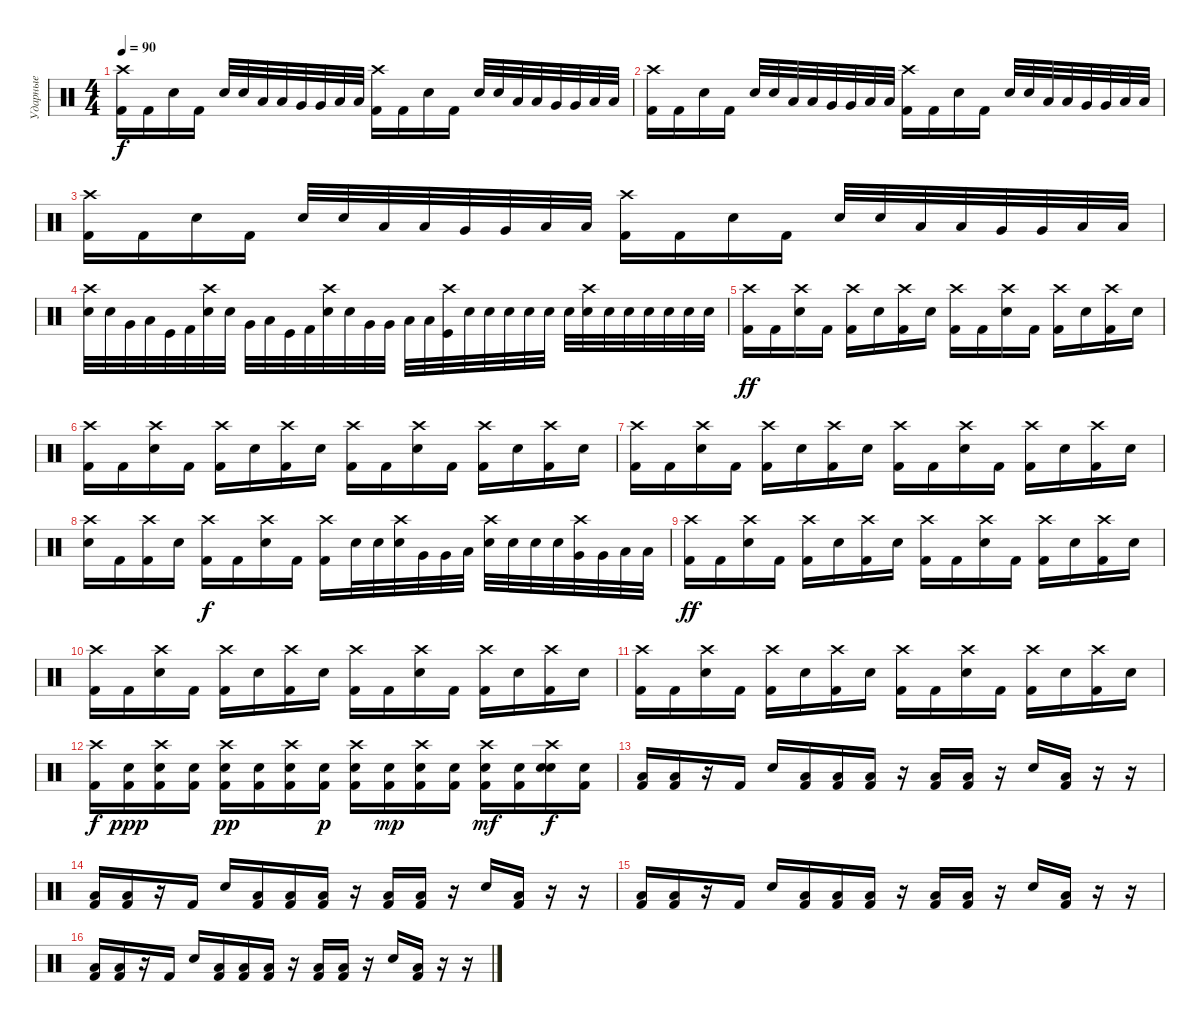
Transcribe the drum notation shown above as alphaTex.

\track ("Ударные" "Ударные") {instrument percussion}
\staff {score}
\articulation defaults
\ts (4 4)
\tempo 90
\clef neutral
\ks c
("Crash high (hit)" "Kick (hit) 2").16{dy f} "Kick (hit) 2".16 "Snare (hit) 2".16 "Kick (hit) 2".16 "Snare (hit) 2".32 "Snare (hit) 2".32 "Low Tom (hit)".32 "Low Tom (hit)".32 "Very Low Tom (hit)".32 "Very Low Tom (hit)".32 "Low Floor Tom (hit)".32 "Low Floor Tom (hit)".32 ("Crash high (hit)" "Kick (hit) 2").16 "Kick (hit) 2".16 "Snare (hit) 2".16 "Kick (hit) 2".16 "Snare (hit) 2".32 "Snare (hit) 2".32 "Low Tom (hit)".32 "Low Tom (hit)".32 "Very Low Tom (hit)".32 "Very Low Tom (hit)".32 "Low Floor Tom (hit)".32 "Low Floor Tom (hit)".32 |
("Crash high (hit)" "Kick (hit) 2").16 "Kick (hit) 2".16 "Snare (hit) 2".16 "Kick (hit) 2".16 "Snare (hit) 2".32 "Snare (hit) 2".32 "Low Tom (hit)".32 "Low Tom (hit)".32 "Very Low Tom (hit)".32 "Very Low Tom (hit)".32 "Low Floor Tom (hit)".32 "Low Floor Tom (hit)".32 ("Crash high (hit)" "Kick (hit) 2").16 "Kick (hit) 2".16 "Snare (hit) 2".16 "Kick (hit) 2".16 "Snare (hit) 2".32 "Snare (hit) 2".32 "Low Tom (hit)".32 "Low Tom (hit)".32 "Very Low Tom (hit)".32 "Very Low Tom (hit)".32 "Low Floor Tom (hit)".32 "Low Floor Tom (hit)".32 |
("Crash high (hit)" "Kick (hit) 2").16 "Kick (hit) 2".16 "Snare (hit) 2".16 "Kick (hit) 2".16 "Snare (hit) 2".32 "Snare (hit) 2".32 "Low Tom (hit)".32 "Low Tom (hit)".32 "Very Low Tom (hit)".32 "Very Low Tom (hit)".32 "Low Floor Tom (hit)".32 "Low Floor Tom (hit)".32 ("Crash high (hit)" "Kick (hit) 2").16 "Kick (hit) 2".16 "Snare (hit) 2".16 "Kick (hit) 2".16 "Snare (hit) 2".32 "Snare (hit) 2".32 "Low Tom (hit)".32 "Low Tom (hit)".32 "Very Low Tom (hit)".32 "Very Low Tom (hit)".32 "Low Floor Tom (hit)".32 "Low Floor Tom (hit)".32 |
("Crash high (hit)" "Snare (hit) 2").32 "Snare (hit) 2".32 "Very Low Tom (hit)".32 "Low Floor Tom (hit)".32 "Kick (hit)".32 "Kick (hit) 2".32 ("Crash high (hit)" "Snare (hit) 2").32 "Snare (hit) 2".32 "Very Low Tom (hit)".32 "Low Floor Tom (hit)".32 "Kick (hit)".32 "Kick (hit) 2".32 ("Crash high (hit)" "Snare (hit) 2").32 "Snare (hit) 2".32 "Very Low Tom (hit)".32 "Very Low Tom (hit)".32 "Low Floor Tom (hit)".32 "Low Floor Tom (hit)".32 ("Crash high (hit)" "Kick (hit)").32 "Snare (hit) 2".32 "Snare (hit) 2".32 "Snare (hit) 2".32 "Snare (hit) 2".32 "Snare (hit) 2".32 "Snare (hit) 2".32 ("Crash high (hit)" "Snare (hit) 2").32 "Snare (hit) 2".32 "Snare (hit) 2".32 "Snare (hit) 2".32 "Snare (hit) 2".32 "Snare (hit) 2".32 "Snare (hit) 2".32 |
("Crash high (hit)" "Kick (hit) 2").16{dy ff} "Kick (hit) 2".16 ("Crash high (hit)" "Snare (hit) 2").16 "Kick (hit) 2".16 ("Crash high (hit)" "Kick (hit) 2").16 "Snare (hit) 2".16 ("Crash high (hit)" "Kick (hit) 2").16 "Snare (hit) 2".16 ("Crash high (hit)" "Kick (hit) 2").16 "Kick (hit) 2".16 ("Crash high (hit)" "Snare (hit) 2").16 "Kick (hit) 2".16 ("Crash high (hit)" "Kick (hit) 2").16 "Snare (hit) 2".16 ("Crash high (hit)" "Kick (hit) 2").16 "Snare (hit) 2".16 |
("Crash high (hit)" "Kick (hit) 2").16 "Kick (hit) 2".16 ("Crash high (hit)" "Snare (hit) 2").16 "Kick (hit) 2".16 ("Crash high (hit)" "Kick (hit) 2").16 "Snare (hit) 2".16 ("Crash high (hit)" "Kick (hit) 2").16 "Snare (hit) 2".16 ("Crash high (hit)" "Kick (hit) 2").16 "Kick (hit) 2".16 ("Crash high (hit)" "Snare (hit) 2").16 "Kick (hit) 2".16 ("Crash high (hit)" "Kick (hit) 2").16 "Snare (hit) 2".16 ("Crash high (hit)" "Kick (hit) 2").16 "Snare (hit) 2".16 |
("Crash high (hit)" "Kick (hit) 2").16 "Kick (hit) 2".16 ("Crash high (hit)" "Snare (hit) 2").16 "Kick (hit) 2".16 ("Crash high (hit)" "Kick (hit) 2").16 "Snare (hit) 2".16 ("Crash high (hit)" "Kick (hit) 2").16 "Snare (hit) 2".16 ("Crash high (hit)" "Kick (hit) 2").16 "Kick (hit) 2".16 ("Crash high (hit)" "Snare (hit) 2").16 "Kick (hit) 2".16 ("Crash high (hit)" "Kick (hit) 2").16 "Snare (hit) 2".16 ("Crash high (hit)" "Kick (hit) 2").16 "Snare (hit) 2".16 |
("Crash high (hit)" "Snare (hit) 2").16 "Kick (hit) 2".16 ("Crash high (hit)" "Kick (hit) 2").16 "Snare (hit) 2".16 ("Crash high (hit)" "Kick (hit) 2").16{dy f} "Kick (hit) 2".16 ("Crash high (hit)" "Snare (hit) 2").16 "Kick (hit) 2".16 ("Crash high (hit)" "Kick (hit) 2").16 "Snare (hit) 2".32 "Snare (hit) 2".32 ("Crash high (hit)" "Snare (hit) 2").32 "Very Low Tom (hit)".32 "Very Low Tom (hit)".32 "Low Floor Tom (hit)".32 ("Crash high (hit)" "Snare (hit) 2").32 "Snare (hit) 2".32 "Snare (hit) 2".32 "Snare (hit) 2".32 ("Crash high (hit)" "Very Low Tom (hit)").32 "Very Low Tom (hit)".32 "Low Floor Tom (hit)".32 "Low Floor Tom (hit)".32 |
("Crash high (hit)" "Kick (hit) 2").16{dy ff} "Kick (hit) 2".16 ("Crash high (hit)" "Snare (hit) 2").16 "Kick (hit) 2".16 ("Crash high (hit)" "Kick (hit) 2").16 "Snare (hit) 2".16 ("Crash high (hit)" "Kick (hit) 2").16 "Snare (hit) 2".16 ("Crash high (hit)" "Kick (hit) 2").16 "Kick (hit) 2".16 ("Crash high (hit)" "Snare (hit) 2").16 "Kick (hit) 2".16 ("Crash high (hit)" "Kick (hit) 2").16 "Snare (hit) 2".16 ("Crash high (hit)" "Kick (hit) 2").16 "Snare (hit) 2".16 |
("Crash high (hit)" "Kick (hit) 2").16 "Kick (hit) 2".16 ("Crash high (hit)" "Snare (hit) 2").16 "Kick (hit) 2".16 ("Crash high (hit)" "Kick (hit) 2").16 "Snare (hit) 2".16 ("Crash high (hit)" "Kick (hit) 2").16 "Snare (hit) 2".16 ("Crash high (hit)" "Kick (hit) 2").16 "Kick (hit) 2".16 ("Crash high (hit)" "Snare (hit) 2").16 "Kick (hit) 2".16 ("Crash high (hit)" "Kick (hit) 2").16 "Snare (hit) 2".16 ("Crash high (hit)" "Kick (hit) 2").16 "Snare (hit) 2".16 |
("Crash high (hit)" "Kick (hit) 2").16 "Kick (hit) 2".16 ("Crash high (hit)" "Snare (hit) 2").16 "Kick (hit) 2".16 ("Crash high (hit)" "Kick (hit) 2").16 "Snare (hit) 2".16 ("Crash high (hit)" "Kick (hit) 2").16 "Snare (hit) 2".16 ("Crash high (hit)" "Kick (hit) 2").16 "Kick (hit) 2".16 ("Crash high (hit)" "Snare (hit) 2").16 "Kick (hit) 2".16 ("Crash high (hit)" "Kick (hit) 2").16 "Snare (hit) 2".16 ("Crash high (hit)" "Kick (hit) 2").16 "Snare (hit) 2".16 |
("Crash high (hit)" "Kick (hit) 2").16{dy f} ("Snare (hit) 2" "Kick (hit) 2").16{dy ppp} ("Crash high (hit)" "Snare (hit) 2" "Kick (hit) 2").16 ("Snare (hit) 2" "Kick (hit) 2").16 ("Crash high (hit)" "Snare (hit) 2" "Kick (hit) 2").16{dy pp} ("Snare (hit) 2" "Kick (hit) 2").16 ("Crash high (hit)" "Snare (hit) 2" "Kick (hit) 2").16 ("Snare (hit) 2" "Kick (hit) 2").16{dy p} ("Crash high (hit)" "Snare (hit) 2" "Kick (hit) 2").16 ("Snare (hit) 2" "Kick (hit) 2").16{dy mp} ("Crash high (hit)" "Snare (hit) 2" "Kick (hit) 2").16 ("Snare (hit) 2" "Kick (hit) 2").16 ("Crash high (hit)" "Snare (hit) 2" "Kick (hit) 2").16{dy mf} ("Snare (hit) 2" "Kick (hit) 2").16 ("Crash high (hit)" "Snare (hit) 2" "Snare (hit) 2").16{dy f} ("Snare (hit) 2" "Kick (hit) 2").16 |
("Kick (hit) 2" "Low Floor Tom (hit)").16 ("Kick (hit) 2" "Low Floor Tom (hit)").16 r.16 "Kick (hit) 2".16 "Snare (hit) 2".16 ("Low Floor Tom (hit)" "Kick (hit) 2").16 ("Low Floor Tom (hit)" "Kick (hit) 2").16 ("Low Floor Tom (hit)" "Kick (hit) 2").16 r.16 ("Low Floor Tom (hit)" "Kick (hit) 2").16 ("Low Floor Tom (hit)" "Kick (hit) 2").16 r.16 "Snare (hit) 2".16 ("Kick (hit) 2" "Low Floor Tom (hit)").16 r.16 r.16 |
("Kick (hit) 2" "Low Floor Tom (hit)").16 ("Kick (hit) 2" "Low Floor Tom (hit)").16 r.16 "Kick (hit) 2".16 "Snare (hit) 2".16 ("Low Floor Tom (hit)" "Kick (hit) 2").16 ("Low Floor Tom (hit)" "Kick (hit) 2").16 ("Low Floor Tom (hit)" "Kick (hit) 2").16 r.16 ("Low Floor Tom (hit)" "Kick (hit) 2").16 ("Low Floor Tom (hit)" "Kick (hit) 2").16 r.16 "Snare (hit) 2".16 ("Kick (hit) 2" "Low Floor Tom (hit)").16 r.16 r.16 |
("Kick (hit) 2" "Low Floor Tom (hit)").16 ("Kick (hit) 2" "Low Floor Tom (hit)").16 r.16 "Kick (hit) 2".16 "Snare (hit) 2".16 ("Low Floor Tom (hit)" "Kick (hit) 2").16 ("Low Floor Tom (hit)" "Kick (hit) 2").16 ("Low Floor Tom (hit)" "Kick (hit) 2").16 r.16 ("Low Floor Tom (hit)" "Kick (hit) 2").16 ("Low Floor Tom (hit)" "Kick (hit) 2").16 r.16 "Snare (hit) 2".16 ("Kick (hit) 2" "Low Floor Tom (hit)").16 r.16 r.16 |
("Kick (hit) 2" "Low Floor Tom (hit)").16 ("Kick (hit) 2" "Low Floor Tom (hit)").16 r.16 "Kick (hit) 2".16 "Snare (hit) 2".16 ("Low Floor Tom (hit)" "Kick (hit) 2").16 ("Low Floor Tom (hit)" "Kick (hit) 2").16 ("Low Floor Tom (hit)" "Kick (hit) 2").16 r.16 ("Low Floor Tom (hit)" "Kick (hit) 2").16 ("Low Floor Tom (hit)" "Kick (hit) 2").16 r.16 "Snare (hit) 2".16 ("Kick (hit) 2" "Low Floor Tom (hit)").16 r.16 r.16
